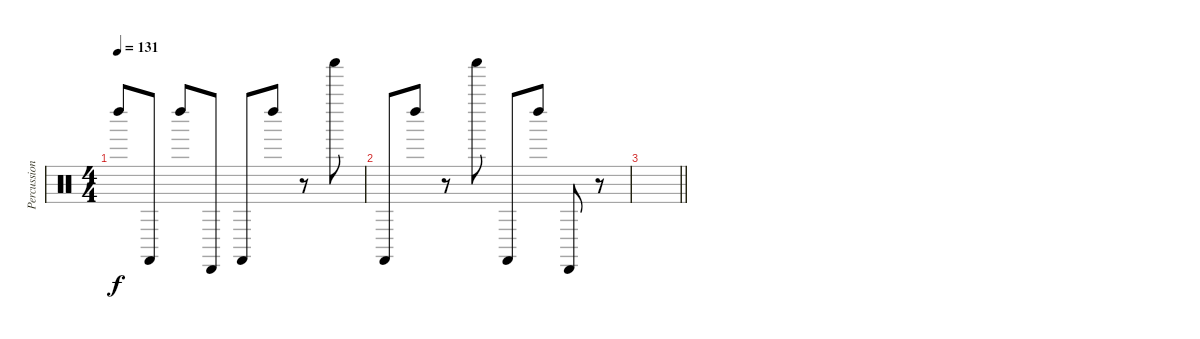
\track ("Percussions" "Percussion") {instrument percussion}
\staff {score}
\articulation defaults
\ts (4 4)
\tempo 131
\clef neutral
\ks c "Left Maraca (hit)".8{dy f} "Castanets (hit)".8 "Left Maraca (hit)".8 "Cabasa (hit)".8 "Castanets (hit)".8 "Left Maraca (hit)".8
r.8 "Shaker (hit)".8 |
"Castanets (hit)".8 "Left Maraca (hit)".8 r.8 "Shaker (hit)".8 "Castanets (hit)".8 "Left Maraca (hit)".8 "Cabasa (hit)".8 r.8 |
\barLineRight lightlight
